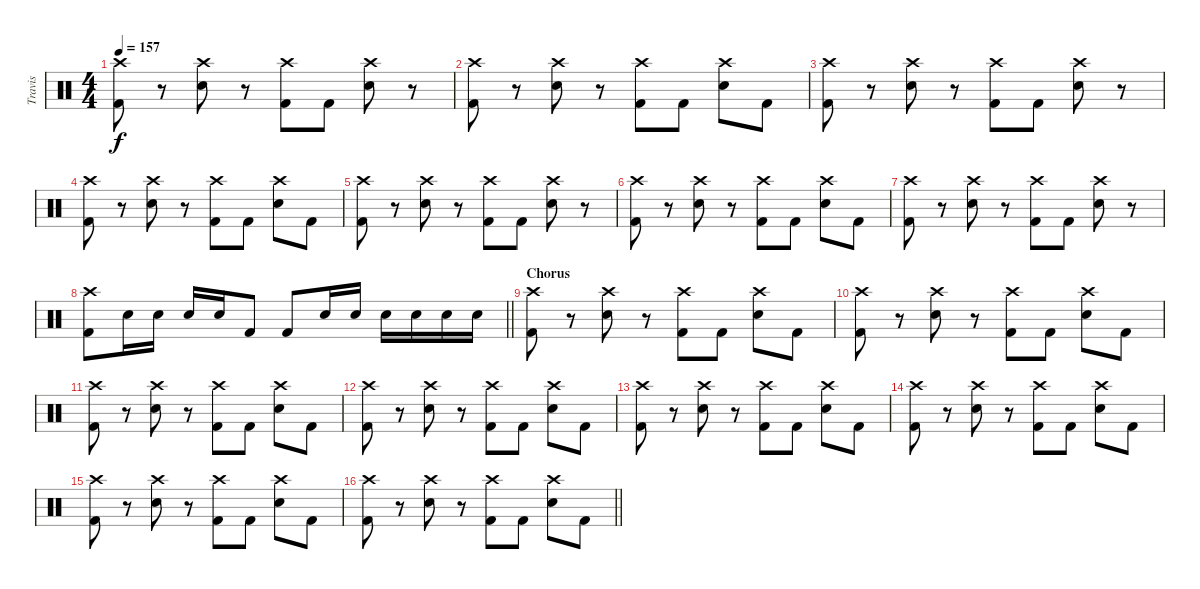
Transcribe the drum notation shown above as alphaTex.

\track ("Travis" "Travis") {instrument percussion}
\staff {score}
\articulation defaults
\ts (4 4)
\tempo 157
\clef neutral
\ks c
("Crash high (hit)" "Kick (hit) 2").8{dy f} r.8 ("Crash high (hit)" "Electric Snare (hit)").8 r.8 ("Crash high (hit)" "Kick (hit) 2").8 "Kick (hit) 2".8 ("Crash high (hit)" "Electric Snare (hit)").8 r.8 |
("Crash high (hit)" "Kick (hit) 2").8 r.8 ("Crash high (hit)" "Electric Snare (hit)").8 r.8 ("Crash high (hit)" "Kick (hit) 2").8 "Kick (hit) 2".8 ("Crash high (hit)" "Electric Snare (hit)").8 "Kick (hit) 2".8 |
("Crash high (hit)" "Kick (hit) 2").8 r.8 ("Crash high (hit)" "Electric Snare (hit)").8 r.8 ("Crash high (hit)" "Kick (hit) 2").8 "Kick (hit) 2".8 ("Crash high (hit)" "Electric Snare (hit)").8 r.8 |
("Crash high (hit)" "Kick (hit) 2").8 r.8 ("Crash high (hit)" "Electric Snare (hit)").8 r.8 ("Crash high (hit)" "Kick (hit) 2").8 "Kick (hit) 2".8 ("Crash high (hit)" "Electric Snare (hit)").8 "Kick (hit) 2".8 |
("Crash high (hit)" "Kick (hit) 2").8 r.8 ("Crash high (hit)" "Electric Snare (hit)").8 r.8 ("Crash high (hit)" "Kick (hit) 2").8 "Kick (hit) 2".8 ("Crash high (hit)" "Electric Snare (hit)").8 r.8 |
("Crash high (hit)" "Kick (hit) 2").8 r.8 ("Crash high (hit)" "Electric Snare (hit)").8 r.8 ("Crash high (hit)" "Kick (hit) 2").8 "Kick (hit) 2".8 ("Crash high (hit)" "Electric Snare (hit)").8 "Kick (hit) 2".8 |
("Crash high (hit)" "Kick (hit) 2").8 r.8 ("Crash high (hit)" "Electric Snare (hit)").8 r.8 ("Crash high (hit)" "Kick (hit) 2").8 "Kick (hit) 2".8 ("Crash high (hit)" "Electric Snare (hit)").8 r.8 |
\barLineRight lightlight
("Crash high (hit)" "Kick (hit) 2").8 "Electric Snare (hit)".16 "Electric Snare (hit)".16 "Electric Snare (hit)".16 "Electric Snare (hit)".16 "Kick (hit) 2".8 "Kick (hit) 2".8 "Electric Snare (hit)".16 "Electric Snare (hit)".16 "Electric Snare (hit)".16 "Electric Snare (hit)".16 "Electric Snare (hit)".16 "Electric Snare (hit)".16 |
\section ("" "Chorus")
("Crash high (hit)" "Kick (hit) 2").8 r.8 ("Crash high (hit)" "Electric Snare (hit)").8 r.8 ("Crash high (hit)" "Kick (hit) 2").8 "Kick (hit) 2".8 ("Crash high (hit)" "Electric Snare (hit)").8 "Kick (hit) 2".8 |
("Crash high (hit)" "Kick (hit) 2").8 r.8 ("Crash high (hit)" "Electric Snare (hit)").8 r.8 ("Crash high (hit)" "Kick (hit) 2").8 "Kick (hit) 2".8 ("Crash high (hit)" "Electric Snare (hit)").8 "Kick (hit) 2".8 |
("Crash high (hit)" "Kick (hit) 2").8 r.8 ("Crash high (hit)" "Electric Snare (hit)").8 r.8 ("Crash high (hit)" "Kick (hit) 2").8 "Kick (hit) 2".8 ("Crash high (hit)" "Electric Snare (hit)").8 "Kick (hit) 2".8 |
("Crash high (hit)" "Kick (hit) 2").8 r.8 ("Crash high (hit)" "Electric Snare (hit)").8 r.8 ("Crash high (hit)" "Kick (hit) 2").8 "Kick (hit) 2".8 ("Crash high (hit)" "Electric Snare (hit)").8 "Kick (hit) 2".8 |
("Crash high (hit)" "Kick (hit) 2").8 r.8 ("Crash high (hit)" "Electric Snare (hit)").8 r.8 ("Crash high (hit)" "Kick (hit) 2").8 "Kick (hit) 2".8 ("Crash high (hit)" "Electric Snare (hit)").8 "Kick (hit) 2".8 |
("Crash high (hit)" "Kick (hit) 2").8 r.8 ("Crash high (hit)" "Electric Snare (hit)").8 r.8 ("Crash high (hit)" "Kick (hit) 2").8 "Kick (hit) 2".8 ("Crash high (hit)" "Electric Snare (hit)").8 "Kick (hit) 2".8 |
("Crash high (hit)" "Kick (hit) 2").8 r.8 ("Crash high (hit)" "Electric Snare (hit)").8 r.8 ("Crash high (hit)" "Kick (hit) 2").8 "Kick (hit) 2".8 ("Crash high (hit)" "Electric Snare (hit)").8 "Kick (hit) 2".8 |
\barLineRight lightlight
("Crash high (hit)" "Kick (hit) 2").8 r.8 ("Crash high (hit)" "Electric Snare (hit)").8 r.8 ("Crash high (hit)" "Kick (hit) 2").8 "Kick (hit) 2".8 ("Crash high (hit)" "Electric Snare (hit)").8 "Kick (hit) 2".8
